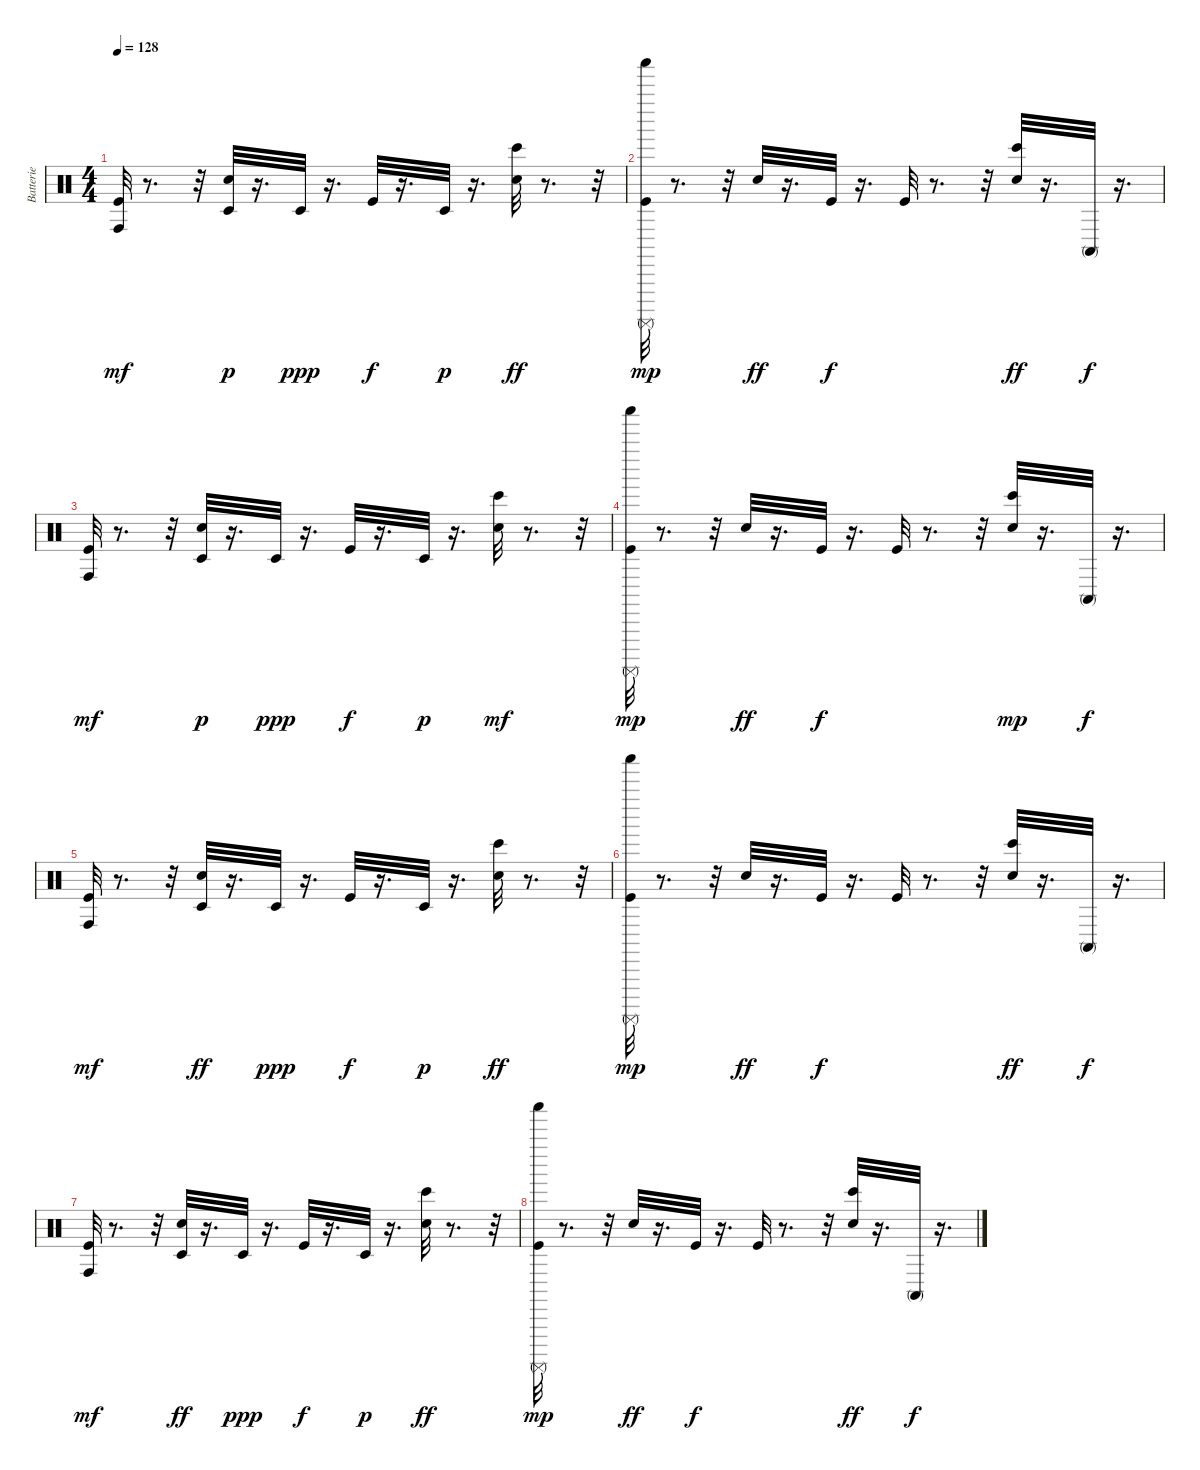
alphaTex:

\track ("Batterie" "Batterie") {instrument percussion}
\staff {score}
\articulation defaults
\ts (4 4)
\tempo 128
\clef neutral
\ks c
("Kick (hit)" "Conga high (hit)").32{dy mf} r.8{d} r.32 ("Electric Snare (hit)" "Timbale low (hit)").32{dy p} r.16{d} "Timbale low (hit)".32{dy ppp} r.16{d} "Kick (hit)".32{dy f} r.16{d} "Timbale low (hit)".32{dy p} r.16{d} ("Bongo High (hit)" "Electric Snare (hit)").32{dy ff} r.8{d} r.32 |
("Surdo (mute)" "Shaker (hit)" "Kick (hit)").32{dy mp} r.8{d} r.32 "Electric Snare (hit)".32{dy ff} r.16{d} "Kick (hit)".32{dy f} r.16{d} "Kick (hit)".32 r.8{d} r.32 ("Bongo High (hit)" "Electric Snare (hit)").32{dy ff} r.16{d} "Conga high (mute)".32{dy f} r.16{d} |
("Kick (hit)" "Conga high (hit)").32{dy mf} r.8{d} r.32 ("Electric Snare (hit)" "Timbale low (hit)").32{dy p} r.16{d} "Timbale low (hit)".32{dy ppp} r.16{d} "Kick (hit)".32{dy f} r.16{d} "Timbale low (hit)".32{dy p} r.16{d} ("Electric Snare (hit)" "Bongo High (hit)").32{dy mf} r.8{d} r.32 |
("Surdo (mute)" "Kick (hit)" "Shaker (hit)").32{dy mp} r.8{d} r.32 "Electric Snare (hit)".32{dy ff} r.16{d} "Kick (hit)".32{dy f} r.16{d} "Kick (hit)".32 r.8{d} r.32 ("Electric Snare (hit)" "Bongo High (hit)").32{dy mp} r.16{d} "Conga high (mute)".32{dy f} r.16{d} |
("Conga high (hit)" "Kick (hit)").32{dy mf} r.8{d} r.32 ("Timbale low (hit)" "Electric Snare (hit)").32{dy ff} r.16{d} "Timbale low (hit)".32{dy ppp} r.16{d} "Kick (hit)".32{dy f} r.16{d} "Timbale low (hit)".32{dy p} r.16{d} ("Bongo High (hit)" "Electric Snare (hit)").32{dy ff} r.8{d} r.32 |
("Shaker (hit)" "Surdo (mute)" "Kick (hit)").32{dy mp} r.8{d} r.32 "Electric Snare (hit)".32{dy ff} r.16{d} "Kick (hit)".32{dy f} r.16{d} "Kick (hit)".32 r.8{d} r.32 ("Bongo High (hit)" "Electric Snare (hit)").32{dy ff} r.16{d} "Conga high (mute)".32{dy f} r.16{d} |
("Kick (hit)" "Conga high (hit)").32{dy mf} r.8{d} r.32 ("Timbale low (hit)" "Electric Snare (hit)").32{dy ff} r.16{d} "Timbale low (hit)".32{dy ppp} r.16{d} "Kick (hit)".32{dy f} r.16{d} "Timbale low (hit)".32{dy p} r.16{d} ("Bongo High (hit)" "Electric Snare (hit)").32{dy ff} r.8{d} r.32 |
("Kick (hit)" "Surdo (mute)" "Shaker (hit)").32{dy mp} r.8{d} r.32 "Electric Snare (hit)".32{dy ff} r.16{d} "Kick (hit)".32{dy f} r.16{d} "Kick (hit)".32 r.8{d} r.32 ("Bongo High (hit)" "Electric Snare (hit)").32{dy ff} r.16{d} "Conga high (mute)".32{dy f} r.16{d}
